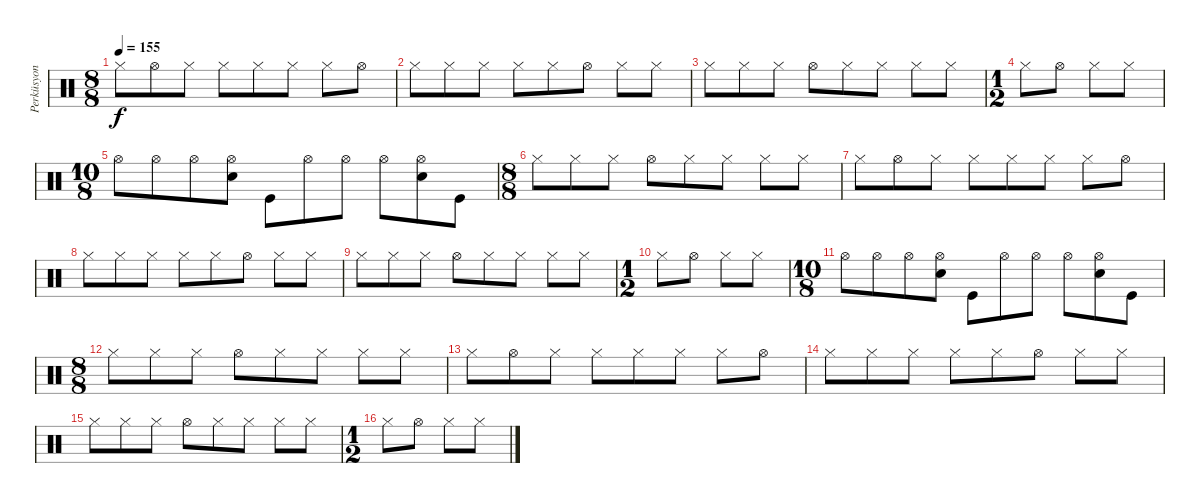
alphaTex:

\track ("Perküsyon" "Perküsyon") {instrument percussion}
\staff {score}
\articulation defaults
\ts (8 8)
\tempo 155
\clef neutral
\ks c "Hi-Hat (closed)".8{dy f} "Hi-Hat (open)".8 "Hi-Hat (closed)".8 "Hi-Hat (closed)".8 "Hi-Hat (closed)".8 "Hi-Hat (closed)".8 "Hi-Hat (closed)".8 "Hi-Hat (open)".8
|
"Hi-Hat (closed)".8 "Hi-Hat (closed)".8 "Hi-Hat (closed)".8 "Hi-Hat (closed)".8 "Hi-Hat (closed)".8 "Hi-Hat (open)".8 "Hi-Hat (closed)".8 "Hi-Hat (closed)".8 |
"Hi-Hat (closed)".8 "Hi-Hat (closed)".8 "Hi-Hat (closed)".8 "Hi-Hat (open)".8 "Hi-Hat (closed)".8 "Hi-Hat (closed)".8 "Hi-Hat (closed)".8 "Hi-Hat (closed)".8 |
\ts (1 2)
"Hi-Hat (closed)".8 "Hi-Hat (open)".8 "Hi-Hat (closed)".8 "Hi-Hat (closed)".8 |
\ts (10 8)
"Hi-Hat (open)".8 "Hi-Hat (open)".8 "Hi-Hat (open)".8 ("Hi-Hat (open)" "Electric Snare (hit)").8 "Kick (hit)".8 "Hi-Hat (open)".8 "Hi-Hat (open)".8 "Hi-Hat (open)".8 ("Hi-Hat (open)" "Electric Snare (hit)").8 "Kick (hit)".8 |
\ts (8 8)
"Hi-Hat (closed)".8 "Hi-Hat (closed)".8 "Hi-Hat (closed)".8 "Hi-Hat (open)".8 "Hi-Hat (closed)".8 "Hi-Hat (closed)".8 "Hi-Hat (closed)".8 "Hi-Hat (closed)".8 |
"Hi-Hat (closed)".8 "Hi-Hat (open)".8 "Hi-Hat (closed)".8 "Hi-Hat (closed)".8 "Hi-Hat (closed)".8 "Hi-Hat (closed)".8 "Hi-Hat (closed)".8 "Hi-Hat (open)".8 |
"Hi-Hat (closed)".8 "Hi-Hat (closed)".8 "Hi-Hat (closed)".8 "Hi-Hat (closed)".8 "Hi-Hat (closed)".8 "Hi-Hat (open)".8 "Hi-Hat (closed)".8 "Hi-Hat (closed)".8 |
"Hi-Hat (closed)".8 "Hi-Hat (closed)".8 "Hi-Hat (closed)".8 "Hi-Hat (open)".8 "Hi-Hat (closed)".8 "Hi-Hat (closed)".8 "Hi-Hat (closed)".8 "Hi-Hat (closed)".8 |
\ts (1 2)
"Hi-Hat (closed)".8 "Hi-Hat (open)".8 "Hi-Hat (closed)".8 "Hi-Hat (closed)".8 |
\ts (10 8)
"Hi-Hat (open)".8 "Hi-Hat (open)".8 "Hi-Hat (open)".8 ("Hi-Hat (open)" "Electric Snare (hit)").8 "Kick (hit)".8 "Hi-Hat (open)".8 "Hi-Hat (open)".8 "Hi-Hat (open)".8 ("Hi-Hat (open)" "Electric Snare (hit)").8 "Kick (hit)".8 |
\ts (8 8)
"Hi-Hat (closed)".8 "Hi-Hat (closed)".8 "Hi-Hat (closed)".8 "Hi-Hat (open)".8 "Hi-Hat (closed)".8 "Hi-Hat (closed)".8 "Hi-Hat (closed)".8 "Hi-Hat (closed)".8 |
"Hi-Hat (closed)".8 "Hi-Hat (open)".8 "Hi-Hat (closed)".8 "Hi-Hat (closed)".8 "Hi-Hat (closed)".8 "Hi-Hat (closed)".8 "Hi-Hat (closed)".8 "Hi-Hat (open)".8 |
"Hi-Hat (closed)".8 "Hi-Hat (closed)".8 "Hi-Hat (closed)".8 "Hi-Hat (closed)".8 "Hi-Hat (closed)".8 "Hi-Hat (open)".8 "Hi-Hat (closed)".8 "Hi-Hat (closed)".8 |
"Hi-Hat (closed)".8 "Hi-Hat (closed)".8 "Hi-Hat (closed)".8 "Hi-Hat (open)".8 "Hi-Hat (closed)".8 "Hi-Hat (closed)".8 "Hi-Hat (closed)".8 "Hi-Hat (closed)".8 |
\ts (1 2)
"Hi-Hat (closed)".8 "Hi-Hat (open)".8 "Hi-Hat (closed)".8 "Hi-Hat (closed)".8
